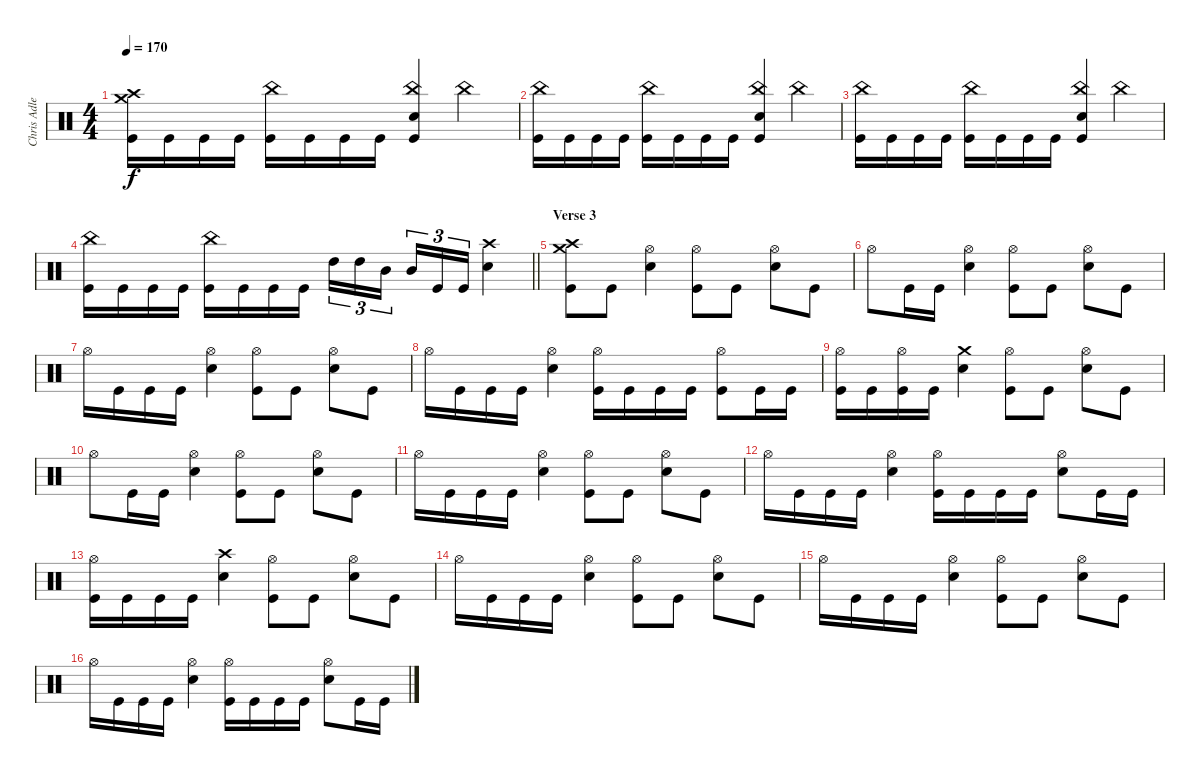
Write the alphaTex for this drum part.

\track ("Chris Adler" "Chris Adle") {instrument percussion}
\staff {score}
\articulation defaults
\ts (4 4)
\tempo 170
\clef neutral
\ks c
("Crash medium (hit)" "Crash high (hit)" "Kick (hit)").16{dy f} "Kick (hit)".16 "Kick (hit)".16 "Kick (hit)".16 ("Kick (hit)" "China (hit)").16 "Kick (hit)".16 "Kick (hit)".16 "Kick (hit)".16 ("Kick (hit)" "Snare (hit) 2" "China (hit)").4 "China (hit)".4 |
("China (hit)" "Kick (hit)").16 "Kick (hit)".16 "Kick (hit)".16 "Kick (hit)".16 ("Kick (hit)" "China (hit)").16 "Kick (hit)".16 "Kick (hit)".16 "Kick (hit)".16 ("Kick (hit)" "Snare (hit) 2" "China (hit)").4 "China (hit)".4 |
("China (hit)" "Kick (hit)").16 "Kick (hit)".16 "Kick (hit)".16 "Kick (hit)".16 ("Kick (hit)" "China (hit)").16 "Kick (hit)".16 "Kick (hit)".16 "Kick (hit)".16 ("Kick (hit)" "Snare (hit) 2" "China (hit)").4 "China (hit)".4 |
\barLineRight lightlight
("China (hit)" "Kick (hit)").16 "Kick (hit)".16 "Kick (hit)".16 "Kick (hit)".16 ("Kick (hit)" "China (hit)").16 "Kick (hit)".16 "Kick (hit)".16 "Kick (hit)".16 "High Tom (hit)".16{tu (3 2)} "High Tom (hit)".16{tu (3 2)} "Mid Tom (hit)".16{tu (3 2) beam splitsecondary} "Mid Tom (hit)".16{tu (3 2)} "Kick (hit)".16{tu (3 2)} "Kick (hit)".16{tu (3 2)} ("Snare (hit) 2" "Crash high (hit)").4 |
\section ("" "Verse 3")
("Crash high (hit)" "Crash medium (hit)" "Kick (hit)").8 "Kick (hit)".8 ("Hi-Hat (open)" "Snare (hit) 2").4 ("Hi-Hat (open)" "Kick (hit)").8 "Kick (hit)".8 ("Snare (hit) 2" "Hi-Hat (open)").8 "Kick (hit)".8 |
"Hi-Hat (open)".8 "Kick (hit)".16 "Kick (hit)".16 ("Snare (hit) 2" "Hi-Hat (open)").4 ("Hi-Hat (open)" "Kick (hit)").8 "Kick (hit)".8 ("Snare (hit) 2" "Hi-Hat (open)").8 "Kick (hit)".8 |
"Hi-Hat (open)".16 "Kick (hit)".16 "Kick (hit)".16 "Kick (hit)".16 ("Hi-Hat (open)" "Snare (hit) 2").4 ("Hi-Hat (open)" "Kick (hit)").8 "Kick (hit)".8 ("Snare (hit) 2" "Hi-Hat (open)").8 "Kick (hit)".8 |
"Hi-Hat (open)".16 "Kick (hit)".16 "Kick (hit)".16 "Kick (hit)".16 ("Hi-Hat (open)" "Snare (hit) 2").4 ("Kick (hit)" "Hi-Hat (open)").16 "Kick (hit)".16 "Kick (hit)".16 "Kick (hit)".16 ("Kick (hit)" "Hi-Hat (open)").8 "Kick (hit)".16 "Kick (hit)".16 |
("Kick (hit)" "Hi-Hat (open)").16 "Kick (hit)".16 ("Kick (hit)" "Hi-Hat (open)").16 "Kick (hit)".16 ("Crash medium (hit)" "Snare (hit) 2").4 ("Hi-Hat (open)" "Kick (hit)").8 "Kick (hit)".8 ("Snare (hit) 2" "Hi-Hat (open)").8 "Kick (hit)".8 |
"Hi-Hat (open)".8 "Kick (hit)".16 "Kick (hit)".16 ("Snare (hit) 2" "Hi-Hat (open)").4 ("Hi-Hat (open)" "Kick (hit)").8 "Kick (hit)".8 ("Snare (hit) 2" "Hi-Hat (open)").8 "Kick (hit)".8 |
"Hi-Hat (open)".16 "Kick (hit)".16 "Kick (hit)".16 "Kick (hit)".16 ("Hi-Hat (open)" "Snare (hit) 2").4 ("Hi-Hat (open)" "Kick (hit)").8 "Kick (hit)".8 ("Snare (hit) 2" "Hi-Hat (open)").8 "Kick (hit)".8 |
"Hi-Hat (open)".16 "Kick (hit)".16 "Kick (hit)".16 "Kick (hit)".16 ("Hi-Hat (open)" "Snare (hit) 2").4 ("Kick (hit)" "Hi-Hat (open)").16 "Kick (hit)".16 "Kick (hit)".16 "Kick (hit)".16 ("Snare (hit) 2" "Hi-Hat (open)").8 "Kick (hit)".16 "Kick (hit)".16 |
("Kick (hit)" "Hi-Hat (open)").16 "Kick (hit)".16 "Kick (hit)".16 "Kick (hit)".16 ("Crash high (hit)" "Snare (hit) 2").4 ("Hi-Hat (open)" "Kick (hit)").8 "Kick (hit)".8 ("Snare (hit) 2" "Hi-Hat (open)").8 "Kick (hit)".8 |
"Hi-Hat (open)".16 "Kick (hit)".16 "Kick (hit)".16 "Kick (hit)".16 ("Hi-Hat (open)" "Snare (hit) 2").4 ("Hi-Hat (open)" "Kick (hit)").8 "Kick (hit)".8 ("Snare (hit) 2" "Hi-Hat (open)").8 "Kick (hit)".8 |
"Hi-Hat (open)".16 "Kick (hit)".16 "Kick (hit)".16 "Kick (hit)".16 ("Hi-Hat (open)" "Snare (hit) 2").4 ("Hi-Hat (open)" "Kick (hit)").8 "Kick (hit)".8 ("Snare (hit) 2" "Hi-Hat (open)").8 "Kick (hit)".8 |
"Hi-Hat (open)".16 "Kick (hit)".16 "Kick (hit)".16 "Kick (hit)".16 ("Hi-Hat (open)" "Snare (hit) 2").4 ("Kick (hit)" "Hi-Hat (open)").16 "Kick (hit)".16 "Kick (hit)".16 "Kick (hit)".16 ("Snare (hit) 2" "Hi-Hat (open)").8 "Kick (hit)".16 "Kick (hit)".16
